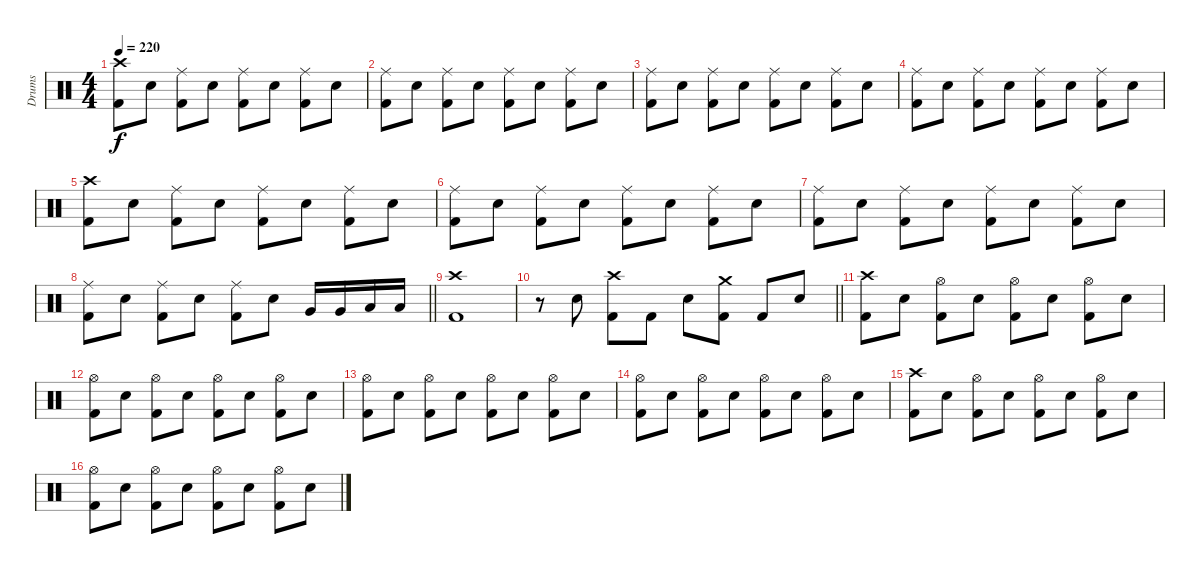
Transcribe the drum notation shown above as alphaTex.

\track ("Drums" "Drums") {instrument percussion}
\staff {score}
\articulation defaults
\ts (4 4)
\tempo 220
\clef neutral
\ks c
("Crash high (hit)" "Kick (hit) 2").8{dy f} "Electric Snare (hit)".8 ("Ride (middle)" "Kick (hit) 2").8 "Electric Snare (hit)".8 ("Ride (middle)" "Kick (hit) 2").8 "Electric Snare (hit)".8 ("Ride (middle)" "Kick (hit) 2").8 "Electric Snare (hit)".8 |
("Ride (middle)" "Kick (hit) 2").8 "Electric Snare (hit)".8 ("Ride (middle)" "Kick (hit) 2").8 "Electric Snare (hit)".8 ("Ride (middle)" "Kick (hit) 2").8 "Electric Snare (hit)".8 ("Ride (middle)" "Kick (hit) 2").8 "Electric Snare (hit)".8 |
("Ride (middle)" "Kick (hit) 2").8 "Electric Snare (hit)".8 ("Ride (middle)" "Kick (hit) 2").8 "Electric Snare (hit)".8 ("Ride (middle)" "Kick (hit) 2").8 "Electric Snare (hit)".8 ("Ride (middle)" "Kick (hit) 2").8 "Electric Snare (hit)".8 |
("Ride (middle)" "Kick (hit) 2").8 "Electric Snare (hit)".8 ("Ride (middle)" "Kick (hit) 2").8 "Electric Snare (hit)".8 ("Ride (middle)" "Kick (hit) 2").8 "Electric Snare (hit)".8 ("Ride (middle)" "Kick (hit) 2").8 "Electric Snare (hit)".8 |
("Crash high (hit)" "Kick (hit) 2").8 "Electric Snare (hit)".8 ("Ride (middle)" "Kick (hit) 2").8 "Electric Snare (hit)".8 ("Ride (middle)" "Kick (hit) 2").8 "Electric Snare (hit)".8 ("Ride (middle)" "Kick (hit) 2").8 "Electric Snare (hit)".8 |
("Ride (middle)" "Kick (hit) 2").8 "Electric Snare (hit)".8 ("Ride (middle)" "Kick (hit) 2").8 "Electric Snare (hit)".8 ("Ride (middle)" "Kick (hit) 2").8 "Electric Snare (hit)".8 ("Ride (middle)" "Kick (hit) 2").8 "Electric Snare (hit)".8 |
("Ride (middle)" "Kick (hit) 2").8 "Electric Snare (hit)".8 ("Ride (middle)" "Kick (hit) 2").8 "Electric Snare (hit)".8 ("Ride (middle)" "Kick (hit) 2").8 "Electric Snare (hit)".8 ("Ride (middle)" "Kick (hit) 2").8 "Electric Snare (hit)".8 |
\barLineRight lightlight
("Ride (middle)" "Kick (hit) 2").8 "Electric Snare (hit)".8 ("Ride (middle)" "Kick (hit) 2").8 "Electric Snare (hit)".8 ("Ride (middle)" "Kick (hit) 2").8 "Electric Snare (hit)".8 "Very Low Tom (hit)".16 "Very Low Tom (hit)".16 "Low Floor Tom (hit)".16 "Low Floor Tom (hit)".16 |
("Crash high (hit)" "Kick (hit) 2").1 |
\barLineRight lightlight
r.8 "Electric Snare (hit)".8 ("Crash high (hit)" "Kick (hit) 2").8 "Kick (hit) 2".8 "Electric Snare (hit)".8 ("Crash medium (hit)" "Kick (hit) 2").8 "Kick (hit) 2".8 "Electric Snare (hit)".8 |
("Crash high (hit)" "Kick (hit) 2").8 "Electric Snare (hit)".8 ("Hi-Hat (open)" "Kick (hit) 2").8 "Electric Snare (hit)".8 ("Hi-Hat (open)" "Kick (hit) 2").8 "Electric Snare (hit)".8 ("Hi-Hat (open)" "Kick (hit) 2").8 "Electric Snare (hit)".8 |
("Hi-Hat (open)" "Kick (hit) 2").8 "Electric Snare (hit)".8 ("Hi-Hat (open)" "Kick (hit) 2").8 "Electric Snare (hit)".8 ("Hi-Hat (open)" "Kick (hit) 2").8 "Electric Snare (hit)".8 ("Hi-Hat (open)" "Kick (hit) 2").8 "Electric Snare (hit)".8 |
("Hi-Hat (open)" "Kick (hit) 2").8 "Electric Snare (hit)".8 ("Hi-Hat (open)" "Kick (hit) 2").8 "Electric Snare (hit)".8 ("Hi-Hat (open)" "Kick (hit) 2").8 "Electric Snare (hit)".8 ("Hi-Hat (open)" "Kick (hit) 2").8 "Electric Snare (hit)".8 |
("Hi-Hat (open)" "Kick (hit) 2").8 "Electric Snare (hit)".8 ("Hi-Hat (open)" "Kick (hit) 2").8 "Electric Snare (hit)".8 ("Hi-Hat (open)" "Kick (hit) 2").8 "Electric Snare (hit)".8 ("Hi-Hat (open)" "Kick (hit) 2").8 "Electric Snare (hit)".8 |
("Crash high (hit)" "Kick (hit) 2").8 "Electric Snare (hit)".8 ("Hi-Hat (open)" "Kick (hit) 2").8 "Electric Snare (hit)".8 ("Hi-Hat (open)" "Kick (hit) 2").8 "Electric Snare (hit)".8 ("Hi-Hat (open)" "Kick (hit) 2").8 "Electric Snare (hit)".8 |
("Hi-Hat (open)" "Kick (hit) 2").8 "Electric Snare (hit)".8 ("Hi-Hat (open)" "Kick (hit) 2").8 "Electric Snare (hit)".8 ("Hi-Hat (open)" "Kick (hit) 2").8 "Electric Snare (hit)".8 ("Hi-Hat (open)" "Kick (hit) 2").8 "Electric Snare (hit)".8
